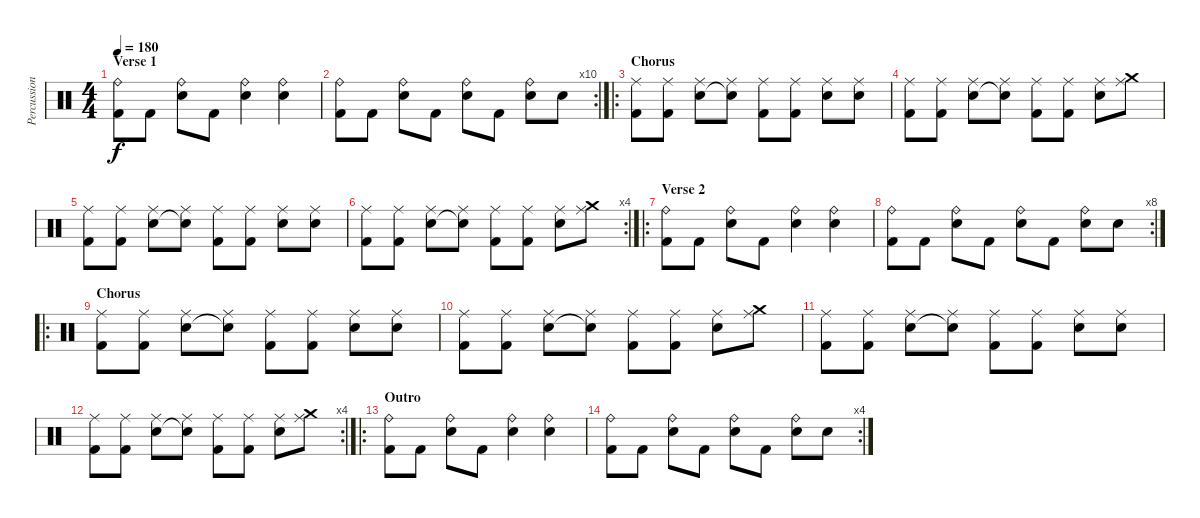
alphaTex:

\track ("Percussion" "Percussion") {instrument percussion}
\staff {score}
\articulation defaults
\ts (4 4)
\section ("" "Verse 1")
\tempo 180
\clef neutral
\ks c
("Ride (bell)" "Kick (hit) 2").8{dy f} "Kick (hit) 2".8 ("Ride (bell)" "Snare (hit) 2").8 "Kick (hit) 2".8 ("Ride (bell)" "Snare (hit) 2").4 ("Ride (bell)" "Snare (hit) 2").4 |
\rc 10
("Ride (bell)" "Kick (hit) 2").8 "Kick (hit) 2".8 ("Ride (bell)" "Snare (hit) 2").8 "Kick (hit) 2".8 ("Ride (bell)" "Snare (hit) 2").8 "Kick (hit) 2".8 ("Ride (bell)" "Snare (hit) 2").8 "Snare (hit) 2".8 |
\ro
\section ("" "Chorus")
("Ride (middle)" "Kick (hit) 2").8 ("Ride (middle)" "Kick (hit) 2").8 ("Ride (middle)" "Snare (hit) 2").8 ("Ride (middle)" "Snare (hit) 2"{t}).8 ("Ride (middle)" "Kick (hit) 2").8 ("Ride (middle)" "Kick (hit) 2").8 ("Ride (middle)" "Snare (hit) 2").8 ("Ride (middle)" "Snare (hit) 2").8 |
("Ride (middle)" "Kick (hit) 2").8 ("Ride (middle)" "Kick (hit) 2").8 ("Ride (middle)" "Snare (hit) 2").8 ("Ride (middle)" "Snare (hit) 2"{t}).8 ("Ride (middle)" "Kick (hit) 2").8 ("Ride (middle)" "Kick (hit) 2").8 ("Ride (middle)" "Snare (hit) 2").8 ("Ride (middle)" "Crash medium (hit)").8 |
("Ride (middle)" "Kick (hit) 2").8 ("Ride (middle)" "Kick (hit) 2").8 ("Ride (middle)" "Snare (hit) 2").8 ("Ride (middle)" "Snare (hit) 2"{t}).8 ("Ride (middle)" "Kick (hit) 2").8 ("Ride (middle)" "Kick (hit) 2").8 ("Ride (middle)" "Snare (hit) 2").8 ("Ride (middle)" "Snare (hit) 2").8 |
\rc 4
("Ride (middle)" "Kick (hit) 2").8 ("Ride (middle)" "Kick (hit) 2").8 ("Ride (middle)" "Snare (hit) 2").8 ("Ride (middle)" "Snare (hit) 2"{t}).8 ("Ride (middle)" "Kick (hit) 2").8 ("Ride (middle)" "Kick (hit) 2").8 ("Ride (middle)" "Snare (hit) 2").8 ("Ride (middle)" "Crash medium (hit)").8 |
\ro
\section ("" "Verse 2")
("Ride (bell)" "Kick (hit) 2").8 "Kick (hit) 2".8 ("Ride (bell)" "Snare (hit) 2").8 "Kick (hit) 2".8 ("Ride (bell)" "Snare (hit) 2").4 ("Ride (bell)" "Snare (hit) 2").4 |
\rc 8
("Ride (bell)" "Kick (hit) 2").8 "Kick (hit) 2".8 ("Ride (bell)" "Snare (hit) 2").8 "Kick (hit) 2".8 ("Ride (bell)" "Snare (hit) 2").8 "Kick (hit) 2".8 ("Ride (bell)" "Snare (hit) 2").8 "Snare (hit) 2".8 |
\ro
\section ("" "Chorus")
("Ride (middle)" "Kick (hit) 2").8 ("Ride (middle)" "Kick (hit) 2").8 ("Ride (middle)" "Snare (hit) 2").8 ("Ride (middle)" "Snare (hit) 2"{t}).8 ("Ride (middle)" "Kick (hit) 2").8 ("Ride (middle)" "Kick (hit) 2").8 ("Ride (middle)" "Snare (hit) 2").8 ("Ride (middle)" "Snare (hit) 2").8 |
("Ride (middle)" "Kick (hit) 2").8 ("Ride (middle)" "Kick (hit) 2").8 ("Ride (middle)" "Snare (hit) 2").8 ("Ride (middle)" "Snare (hit) 2"{t}).8 ("Ride (middle)" "Kick (hit) 2").8 ("Ride (middle)" "Kick (hit) 2").8 ("Ride (middle)" "Snare (hit) 2").8 ("Ride (middle)" "Crash medium (hit)").8 |
("Ride (middle)" "Kick (hit) 2").8 ("Ride (middle)" "Kick (hit) 2").8 ("Ride (middle)" "Snare (hit) 2").8 ("Ride (middle)" "Snare (hit) 2"{t}).8 ("Ride (middle)" "Kick (hit) 2").8 ("Ride (middle)" "Kick (hit) 2").8 ("Ride (middle)" "Snare (hit) 2").8 ("Ride (middle)" "Snare (hit) 2").8 |
\rc 4
("Ride (middle)" "Kick (hit) 2").8 ("Ride (middle)" "Kick (hit) 2").8 ("Ride (middle)" "Snare (hit) 2").8 ("Ride (middle)" "Snare (hit) 2"{t}).8 ("Ride (middle)" "Kick (hit) 2").8 ("Ride (middle)" "Kick (hit) 2").8 ("Ride (middle)" "Snare (hit) 2").8 ("Ride (middle)" "Crash medium (hit)").8 |
\ro
\section ("" "Outro")
("Ride (bell)" "Kick (hit) 2").8 "Kick (hit) 2".8 ("Ride (bell)" "Snare (hit) 2").8 "Kick (hit) 2".8 ("Ride (bell)" "Snare (hit) 2").4 ("Ride (bell)" "Snare (hit) 2").4 |
\rc 4
("Ride (bell)" "Kick (hit) 2").8 "Kick (hit) 2".8 ("Ride (bell)" "Snare (hit) 2").8 "Kick (hit) 2".8 ("Ride (bell)" "Snare (hit) 2").8 "Kick (hit) 2".8 ("Ride (bell)" "Snare (hit) 2").8 "Snare (hit) 2".8
